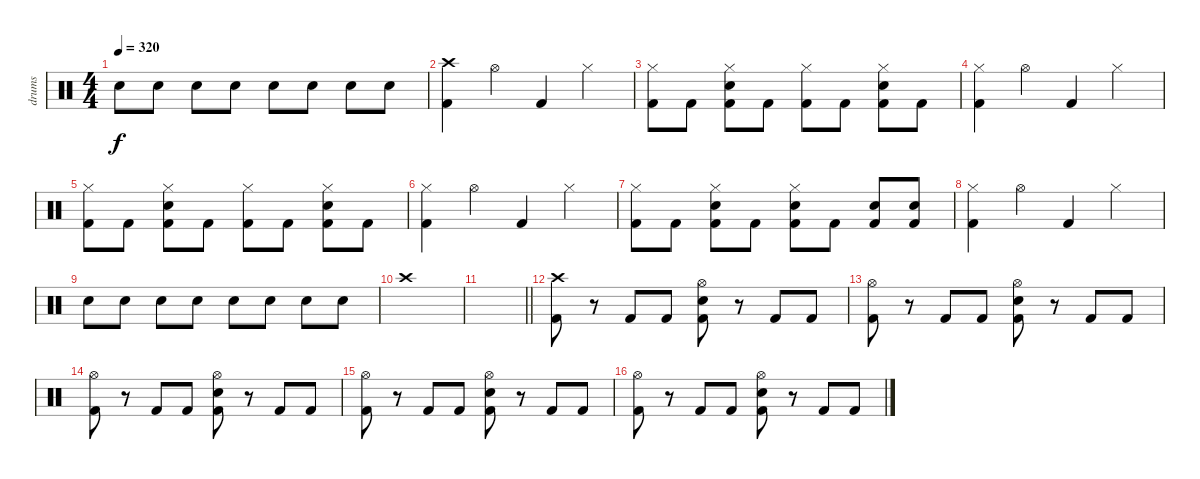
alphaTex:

\track ("drums" "drums") {instrument percussion}
\staff {score}
\articulation defaults
\ts (4 4)
\tempo 320
\clef neutral
\ks c "Snare (hit) 2".8{dy f} "Snare (hit) 2".8 "Snare (hit) 2".8 "Snare (hit) 2".8 "Snare (hit) 2".8 "Snare (hit) 2".8 "Snare (hit) 2".8 "Snare (hit) 2".8
|
("Crash high (hit)" "Kick (hit) 2").4 "Hi-Hat (open)".4 "Kick (hit) 2".4 "Hi-Hat (closed)".4 |
("Hi-Hat (closed)" "Kick (hit) 2").8 "Kick (hit) 2".8 ("Hi-Hat (closed)" "Kick (hit) 2" "Snare (hit) 2").8 "Kick (hit) 2".8 ("Hi-Hat (closed)" "Kick (hit) 2").8 "Kick (hit) 2".8 ("Hi-Hat (closed)" "Kick (hit) 2" "Snare (hit) 2").8 "Kick (hit) 2".8 |
("Hi-Hat (closed)" "Kick (hit) 2").4 "Hi-Hat (open)".4 "Kick (hit) 2".4 "Hi-Hat (closed)".4 |
("Hi-Hat (closed)" "Kick (hit) 2").8 "Kick (hit) 2".8 ("Hi-Hat (closed)" "Kick (hit) 2" "Snare (hit) 2").8 "Kick (hit) 2".8 ("Hi-Hat (closed)" "Kick (hit) 2").8 "Kick (hit) 2".8 ("Hi-Hat (closed)" "Kick (hit) 2" "Snare (hit) 2").8 "Kick (hit) 2".8 |
("Hi-Hat (closed)" "Kick (hit) 2").4 "Hi-Hat (open)".4 "Kick (hit) 2".4 "Hi-Hat (closed)".4 |
("Hi-Hat (closed)" "Kick (hit) 2").8 "Kick (hit) 2".8 ("Hi-Hat (closed)" "Kick (hit) 2" "Snare (hit) 2").8 "Kick (hit) 2".8 ("Hi-Hat (closed)" "Kick (hit) 2" "Snare (hit) 2").8 "Kick (hit) 2".8 ("Kick (hit) 2" "Snare (hit) 2").8 ("Kick (hit) 2" "Snare (hit) 2").8 |
("Hi-Hat (closed)" "Kick (hit) 2").4 "Hi-Hat (open)".4 "Kick (hit) 2".4 "Hi-Hat (closed)".4 |
"Snare (hit) 2".8 "Snare (hit) 2".8 "Snare (hit) 2".8 "Snare (hit) 2".8 "Snare (hit) 2".8 "Snare (hit) 2".8 "Snare (hit) 2".8 "Snare (hit) 2".8 |
"Crash high (hit)".1 |
\barLineRight lightlight
|
("Crash high (hit)" "Kick (hit) 2").8 r.8 "Kick (hit) 2".8 "Kick (hit) 2".8 ("Hi-Hat (open)" "Kick (hit) 2" "Snare (hit) 2").8 r.8 "Kick (hit) 2".8 "Kick (hit) 2".8 |
("Hi-Hat (open)" "Kick (hit) 2").8 r.8 "Kick (hit) 2".8 "Kick (hit) 2".8 ("Hi-Hat (open)" "Kick (hit) 2" "Snare (hit) 2").8 r.8 "Kick (hit) 2".8 "Kick (hit) 2".8 |
("Hi-Hat (open)" "Kick (hit) 2").8 r.8 "Kick (hit) 2".8 "Kick (hit) 2".8 ("Hi-Hat (open)" "Kick (hit) 2" "Snare (hit) 2").8 r.8 "Kick (hit) 2".8 "Kick (hit) 2".8 |
("Hi-Hat (open)" "Kick (hit) 2").8 r.8 "Kick (hit) 2".8 "Kick (hit) 2".8 ("Hi-Hat (open)" "Kick (hit) 2" "Snare (hit) 2").8 r.8 "Kick (hit) 2".8 "Kick (hit) 2".8 |
("Hi-Hat (open)" "Kick (hit) 2").8 r.8 "Kick (hit) 2".8 "Kick (hit) 2".8 ("Hi-Hat (open)" "Kick (hit) 2" "Snare (hit) 2").8 r.8 "Kick (hit) 2".8 "Kick (hit) 2".8
